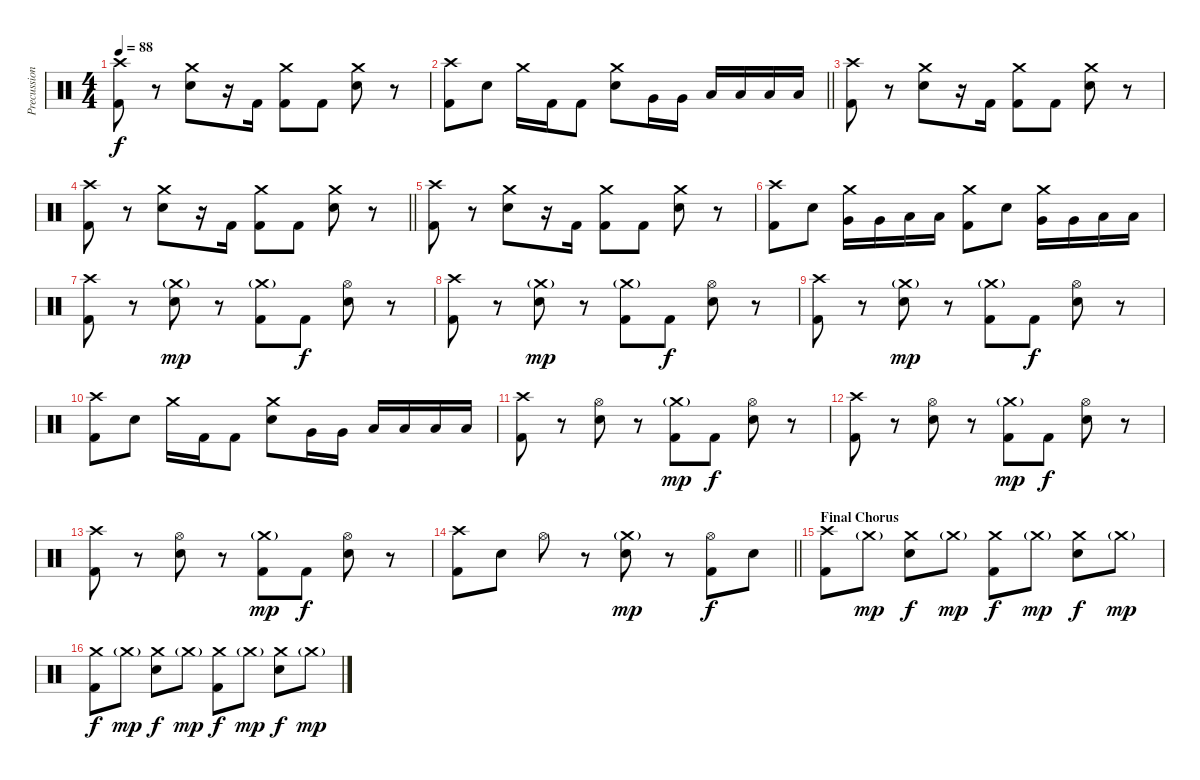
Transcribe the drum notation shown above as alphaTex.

\track ("Precussion" "Precussion") {instrument percussion}
\staff {score}
\articulation defaults
\ts (4 4)
\tempo 88
\clef neutral
\ks c
("Crash high (hit)" "Kick (hit) 2").8{dy f} r.8 ("Crash medium (hit)" "Electric Snare (hit)").8 r.16 "Kick (hit) 2".16 ("Crash medium (hit)" "Kick (hit) 2").8 "Kick (hit) 2".8 ("Crash medium (hit)" "Electric Snare (hit)").8 r.8 |
\barLineRight lightlight
("Crash high (hit)" "Kick (hit) 2").8 "Electric Snare (hit)".8 "Crash medium (hit)".16 "Kick (hit) 2".16 "Kick (hit) 2".8 ("Crash medium (hit)" "Electric Snare (hit)").8 "Very Low Tom (hit)".16 "Very Low Tom (hit)".16 "Low Floor Tom (hit)".16 "Low Floor Tom (hit)".16 "Low Floor Tom (hit)".16 "Low Floor Tom (hit)".16 |
("Crash high (hit)" "Kick (hit) 2").8 r.8 ("Crash medium (hit)" "Electric Snare (hit)").8 r.16 "Kick (hit) 2".16 ("Crash medium (hit)" "Kick (hit) 2").8 "Kick (hit) 2".8 ("Crash medium (hit)" "Electric Snare (hit)").8 r.8 |
\barLineRight lightlight
("Crash high (hit)" "Kick (hit) 2").8 r.8 ("Crash medium (hit)" "Electric Snare (hit)").8 r.16 "Kick (hit) 2".16 ("Crash medium (hit)" "Kick (hit) 2").8 "Kick (hit) 2".8 ("Crash medium (hit)" "Electric Snare (hit)").8 r.8 |
("Crash high (hit)" "Kick (hit) 2").8 r.8 ("Crash medium (hit)" "Electric Snare (hit)").8 r.16 "Kick (hit) 2".16 ("Crash medium (hit)" "Kick (hit) 2").8 "Kick (hit) 2".8 ("Crash medium (hit)" "Electric Snare (hit)").8 r.8 |
("Crash high (hit)" "Kick (hit) 2").8 "Electric Snare (hit)".8 ("Crash medium (hit)" "Very Low Tom (hit)").16 "Very Low Tom (hit)".16 "Low Floor Tom (hit)".16 "Low Floor Tom (hit)".16 ("Crash medium (hit)" "Kick (hit) 2").8 "Electric Snare (hit)".8 ("Crash medium (hit)" "Very Low Tom (hit)").16 "Very Low Tom (hit)".16 "Low Floor Tom (hit)".16 "Low Floor Tom (hit)".16 |
("Crash high (hit)" "Kick (hit) 2").8 r.8 ("Crash medium (hit)"{g} "Electric Snare (hit)").8{dy mp} r.8 ("Crash medium (hit)"{g} "Kick (hit) 2").8 "Kick (hit) 2".8{dy f} ("Hi-Hat (open)" "Electric Snare (hit)").8 r.8 |
("Crash high (hit)" "Kick (hit) 2").8 r.8 ("Crash medium (hit)"{g} "Electric Snare (hit)").8{dy mp} r.8 ("Crash medium (hit)"{g} "Kick (hit) 2").8 "Kick (hit) 2".8{dy f} ("Hi-Hat (open)" "Electric Snare (hit)").8 r.8 |
("Crash high (hit)" "Kick (hit) 2").8 r.8 ("Crash medium (hit)"{g} "Electric Snare (hit)").8{dy mp} r.8 ("Crash medium (hit)"{g} "Kick (hit) 2").8 "Kick (hit) 2".8{dy f} ("Hi-Hat (open)" "Electric Snare (hit)").8 r.8 |
("Crash high (hit)" "Kick (hit) 2").8 "Electric Snare (hit)".8 "Crash medium (hit)".16 "Kick (hit) 2".16 "Kick (hit) 2".8 ("Crash medium (hit)" "Electric Snare (hit)").8 "Very Low Tom (hit)".16 "Very Low Tom (hit)".16 "Low Floor Tom (hit)".16 "Low Floor Tom (hit)".16 "Low Floor Tom (hit)".16 "Low Floor Tom (hit)".16 |
("Crash high (hit)" "Kick (hit) 2").8 r.8 ("Hi-Hat (open)" "Electric Snare (hit)").8 r.8 ("Crash medium (hit)"{g} "Kick (hit) 2").8{dy mp} "Kick (hit) 2".8{dy f} ("Hi-Hat (open)" "Electric Snare (hit)").8 r.8 |
("Crash high (hit)" "Kick (hit) 2").8 r.8 ("Hi-Hat (open)" "Electric Snare (hit)").8 r.8 ("Crash medium (hit)"{g} "Kick (hit) 2").8{dy mp} "Kick (hit) 2".8{dy f} ("Hi-Hat (open)" "Electric Snare (hit)").8 r.8 |
("Crash high (hit)" "Kick (hit) 2").8 r.8 ("Hi-Hat (open)" "Electric Snare (hit)").8 r.8 ("Crash medium (hit)"{g} "Kick (hit) 2").8{dy mp} "Kick (hit) 2".8{dy f} ("Hi-Hat (open)" "Electric Snare (hit)").8 r.8 |
\barLineRight lightlight
("Crash high (hit)" "Kick (hit) 2").8 "Electric Snare (hit)".8 "Hi-Hat (open)".8 r.8 ("Crash medium (hit)"{g} "Electric Snare (hit)").8{dy mp} r.8 ("Hi-Hat (open)" "Kick (hit) 2").8{dy f} "Electric Snare (hit)".8 |
\section ("" "Final Chorus")
("Crash high (hit)" "Kick (hit) 2").8 "Crash medium (hit)"{g}.8{dy mp} ("Crash medium (hit)" "Electric Snare (hit)").8{dy f} "Crash medium (hit)"{g}.8{dy mp} ("Crash medium (hit)" "Kick (hit) 2").8{dy f} "Crash medium (hit)"{g}.8{dy mp} ("Crash medium (hit)" "Electric Snare (hit)").8{dy f} "Crash medium (hit)"{g}.8{dy mp} |
("Crash medium (hit)" "Kick (hit) 2").8{dy f} "Crash medium (hit)"{g}.8{dy mp} ("Crash medium (hit)" "Electric Snare (hit)").8{dy f} "Crash medium (hit)"{g}.8{dy mp} ("Crash medium (hit)" "Kick (hit) 2").8{dy f} "Crash medium (hit)"{g}.8{dy mp} ("Crash medium (hit)" "Electric Snare (hit)").8{dy f} "Crash medium (hit)"{g}.8{dy mp}
